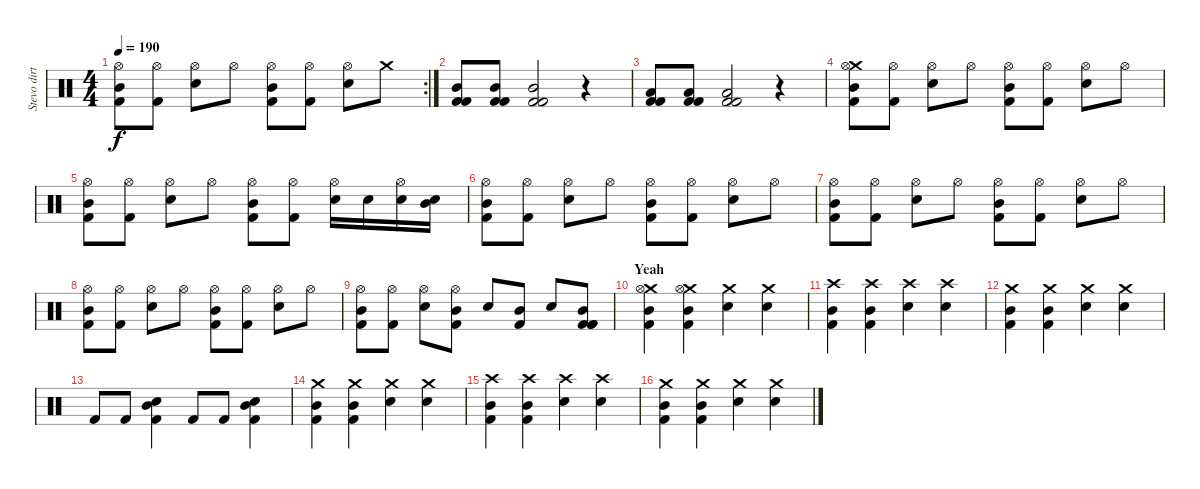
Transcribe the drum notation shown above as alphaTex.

\track ("Stevo dirty poo (drummer)" "Stevo dirt") {instrument percussion}
\staff {score}
\articulation defaults
\rc 2
\ts (4 4)
\tempo 190
\clef neutral
\ks c
("Mid Tom (hit)" "Hi-Hat (open)" "Kick (hit) 2").8{dy f} ("Hi-Hat (open)" "Kick (hit) 2").8 ("Snare (hit) 2" "Hi-Hat (open)").8 "Hi-Hat (open)".8 ("Mid Tom (hit)" "Hi-Hat (open)" "Kick (hit) 2").8 ("Hi-Hat (open)" "Kick (hit) 2").8 ("Snare (hit) 2" "Hi-Hat (open)").8 "Crash medium (hit)".8 |
("Mid Tom (hit)" "Kick (hit) 2" "Kick (hit) 2").8 ("Mid Tom (hit)" "Kick (hit) 2" "Kick (hit) 2").8 ("Mid Tom (hit)" "Kick (hit) 2" "Kick (hit) 2").2 r.4 |
("Low Tom (hit)" "Kick (hit) 2" "Kick (hit) 2").8 ("Low Tom (hit)" "Kick (hit) 2" "Kick (hit) 2").8 ("Low Tom (hit)" "Kick (hit) 2" "Kick (hit) 2").2 r.4 |
("Crash medium (hit)" "Mid Tom (hit)" "Hi-Hat (open)" "Kick (hit) 2").8 ("Hi-Hat (open)" "Kick (hit) 2").8 ("Snare (hit) 2" "Hi-Hat (open)").8 "Hi-Hat (open)".8 ("Mid Tom (hit)" "Hi-Hat (open)" "Kick (hit) 2").8 ("Hi-Hat (open)" "Kick (hit) 2").8 ("Snare (hit) 2" "Hi-Hat (open)").8 "Hi-Hat (open)".8 |
("Mid Tom (hit)" "Hi-Hat (open)" "Kick (hit) 2").8 ("Hi-Hat (open)" "Kick (hit) 2").8 ("Snare (hit) 2" "Hi-Hat (open)").8 "Hi-Hat (open)".8 ("Mid Tom (hit)" "Hi-Hat (open)" "Kick (hit) 2").8 ("Hi-Hat (open)" "Kick (hit) 2").8 ("Snare (hit) 2" "Hi-Hat (open)").16 "Snare (hit) 2".16 ("Snare (hit) 2" "Hi-Hat (open)").16 ("Mid Tom (hit)" "Snare (hit) 2").16 |
("Mid Tom (hit)" "Hi-Hat (open)" "Kick (hit) 2").8 ("Hi-Hat (open)" "Kick (hit) 2").8 ("Snare (hit) 2" "Hi-Hat (open)").8 "Hi-Hat (open)".8 ("Mid Tom (hit)" "Hi-Hat (open)" "Kick (hit) 2").8 ("Hi-Hat (open)" "Kick (hit) 2").8 ("Snare (hit) 2" "Hi-Hat (open)").8 "Hi-Hat (open)".8 |
("Mid Tom (hit)" "Hi-Hat (open)" "Kick (hit) 2").8 ("Hi-Hat (open)" "Kick (hit) 2").8 ("Snare (hit) 2" "Hi-Hat (open)").8 "Hi-Hat (open)".8 ("Mid Tom (hit)" "Hi-Hat (open)" "Kick (hit) 2").8 ("Hi-Hat (open)" "Kick (hit) 2").8 ("Snare (hit) 2" "Hi-Hat (open)").8 "Hi-Hat (open)".8 |
("Mid Tom (hit)" "Hi-Hat (open)" "Kick (hit) 2").8 ("Hi-Hat (open)" "Kick (hit) 2").8 ("Snare (hit) 2" "Hi-Hat (open)").8 "Hi-Hat (open)".8 ("Mid Tom (hit)" "Hi-Hat (open)" "Kick (hit) 2").8 ("Hi-Hat (open)" "Kick (hit) 2").8 ("Snare (hit) 2" "Hi-Hat (open)").8 "Hi-Hat (open)".8 |
("Mid Tom (hit)" "Hi-Hat (open)" "Kick (hit) 2").8 ("Hi-Hat (open)" "Kick (hit) 2").8 ("Snare (hit) 2" "Hi-Hat (open)").8 ("Mid Tom (hit)" "Hi-Hat (open)" "Kick (hit) 2").8 "Snare (hit) 2".8 ("Mid Tom (hit)" "Kick (hit) 2").8 "Snare (hit) 2".8 ("Kick (hit) 2" "Mid Tom (hit)" "Kick (hit) 2" "Kick (hit) 2").8 |
\section ("" "Yeah")
("Crash medium (hit)" "Mid Tom (hit)" "Hi-Hat (open)" "Kick (hit) 2").4 ("Crash medium (hit)" "Mid Tom (hit)" "Hi-Hat (open)" "Kick (hit) 2").4 ("Crash medium (hit)" "Snare (hit) 2").4 ("Crash medium (hit)" "Snare (hit) 2").4 |
("Crash high (hit)" "Mid Tom (hit)" "Kick (hit) 2").4 ("Crash high (hit)" "Mid Tom (hit)" "Kick (hit) 2").4 ("Crash high (hit)" "Snare (hit) 2").4 ("Crash high (hit)" "Snare (hit) 2").4 |
("Crash medium (hit)" "Mid Tom (hit)" "Kick (hit) 2").4 ("Crash medium (hit)" "Mid Tom (hit)" "Kick (hit) 2").4 ("Crash medium (hit)" "Snare (hit) 2").4 ("Crash medium (hit)" "Snare (hit) 2").4 |
"Kick (hit) 2".8 "Kick (hit) 2".8 ("Mid Tom (hit)" "Snare (hit) 2" "Kick (hit) 2").4 "Kick (hit) 2".8 "Kick (hit) 2".8 ("Mid Tom (hit)" "Snare (hit) 2" "Kick (hit) 2").4 |
("Crash medium (hit)" "Mid Tom (hit)" "Kick (hit) 2").4 ("Crash medium (hit)" "Mid Tom (hit)" "Kick (hit) 2").4 ("Crash medium (hit)" "Snare (hit) 2").4 ("Crash medium (hit)" "Snare (hit) 2").4 |
("Crash high (hit)" "Mid Tom (hit)" "Kick (hit) 2").4 ("Crash high (hit)" "Mid Tom (hit)" "Kick (hit) 2").4 ("Crash high (hit)" "Snare (hit) 2").4 ("Crash high (hit)" "Snare (hit) 2").4 |
("Crash medium (hit)" "Mid Tom (hit)" "Kick (hit) 2").4 ("Crash medium (hit)" "Mid Tom (hit)" "Kick (hit) 2").4 ("Crash medium (hit)" "Snare (hit) 2").4 ("Crash medium (hit)" "Snare (hit) 2").4
